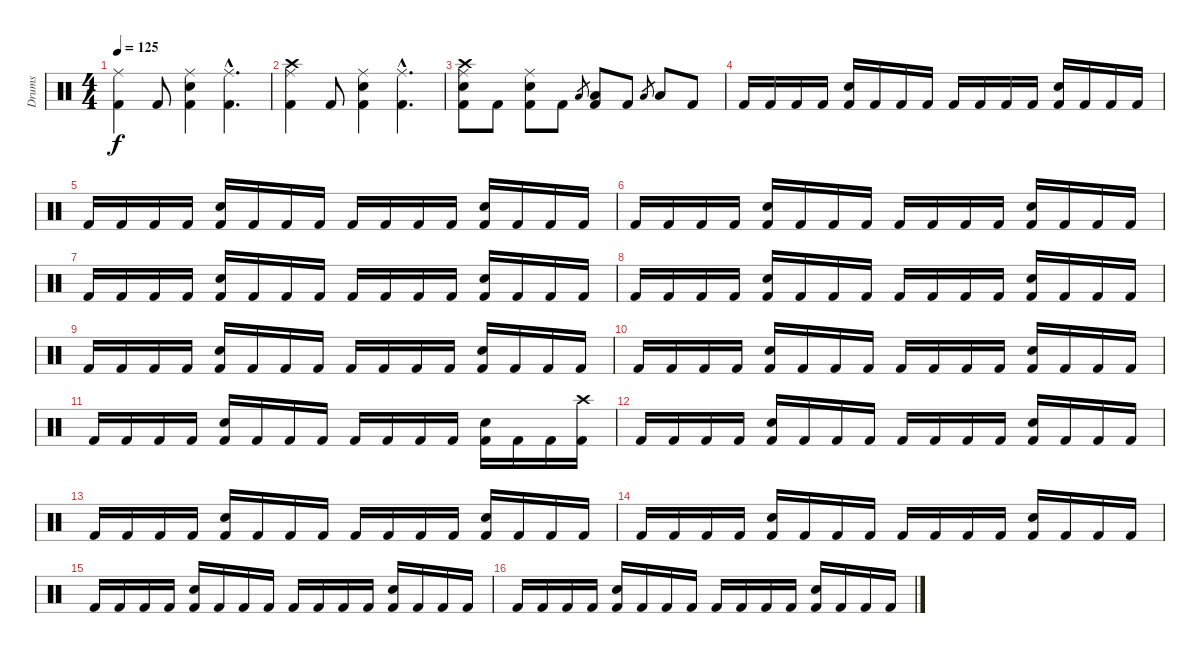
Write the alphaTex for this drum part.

\track ("Drums" "Drums") {instrument percussion}
\staff {score}
\articulation defaults
\ts (4 4)
\tempo 125
\clef neutral
\ks c
("Ride (middle)" "Kick (hit) 2").4{dy f} "Kick (hit) 2".8 ("Ride (middle)" "Electric Snare (hit)" "Kick (hit) 2").4 ("Ride (middle)"{hac} "Kick (hit) 2"{hac}).4{d} |
("Ride (middle)" "Crash high (hit)" "Kick (hit) 2").4 "Kick (hit) 2".8 ("Ride (middle)" "Electric Snare (hit)" "Kick (hit) 2").4 ("Ride (middle)"{hac} "Kick (hit) 2"{hac}).4{d} |
("Crash high (hit)" "Ride (middle)" "Electric Snare (hit)" "Kick (hit) 2").8 "Kick (hit) 2".8 ("Ride (middle)" "Electric Snare (hit)" "Kick (hit) 2").8 "Kick (hit) 2".8 "Low Tom (hit)".8{gr} ("Low Tom (hit)" "Kick (hit) 2").8 "Kick (hit) 2".8 "Low Tom (hit)".8{gr} "Low Tom (hit)".8 "Kick (hit) 2".8 |
"Kick (hit) 2".16 "Kick (hit) 2".16 "Kick (hit) 2".16 "Kick (hit) 2".16 ("Electric Snare (hit)" "Kick (hit) 2").16 "Kick (hit) 2".16 "Kick (hit) 2".16 "Kick (hit) 2".16 "Kick (hit) 2".16 "Kick (hit) 2".16 "Kick (hit) 2".16 "Kick (hit) 2".16 ("Electric Snare (hit)" "Kick (hit) 2").16 "Kick (hit) 2".16 "Kick (hit) 2".16 "Kick (hit) 2".16 |
"Kick (hit) 2".16 "Kick (hit) 2".16 "Kick (hit) 2".16 "Kick (hit) 2".16 ("Electric Snare (hit)" "Kick (hit) 2").16 "Kick (hit) 2".16 "Kick (hit) 2".16 "Kick (hit) 2".16 "Kick (hit) 2".16 "Kick (hit) 2".16 "Kick (hit) 2".16 "Kick (hit) 2".16 ("Electric Snare (hit)" "Kick (hit) 2").16 "Kick (hit) 2".16 "Kick (hit) 2".16 "Kick (hit) 2".16 |
"Kick (hit) 2".16 "Kick (hit) 2".16 "Kick (hit) 2".16 "Kick (hit) 2".16 ("Electric Snare (hit)" "Kick (hit) 2").16 "Kick (hit) 2".16 "Kick (hit) 2".16 "Kick (hit) 2".16 "Kick (hit) 2".16 "Kick (hit) 2".16 "Kick (hit) 2".16 "Kick (hit) 2".16 ("Electric Snare (hit)" "Kick (hit) 2").16 "Kick (hit) 2".16 "Kick (hit) 2".16 "Kick (hit) 2".16 |
"Kick (hit) 2".16 "Kick (hit) 2".16 "Kick (hit) 2".16 "Kick (hit) 2".16 ("Electric Snare (hit)" "Kick (hit) 2").16 "Kick (hit) 2".16 "Kick (hit) 2".16 "Kick (hit) 2".16 "Kick (hit) 2".16 "Kick (hit) 2".16 "Kick (hit) 2".16 "Kick (hit) 2".16 ("Electric Snare (hit)" "Kick (hit) 2").16 "Kick (hit) 2".16 "Kick (hit) 2".16 "Kick (hit) 2".16 |
"Kick (hit) 2".16 "Kick (hit) 2".16 "Kick (hit) 2".16 "Kick (hit) 2".16 ("Electric Snare (hit)" "Kick (hit) 2").16 "Kick (hit) 2".16 "Kick (hit) 2".16 "Kick (hit) 2".16 "Kick (hit) 2".16 "Kick (hit) 2".16 "Kick (hit) 2".16 "Kick (hit) 2".16 ("Electric Snare (hit)" "Kick (hit) 2").16 "Kick (hit) 2".16 "Kick (hit) 2".16 "Kick (hit) 2".16 |
"Kick (hit) 2".16 "Kick (hit) 2".16 "Kick (hit) 2".16 "Kick (hit) 2".16 ("Electric Snare (hit)" "Kick (hit) 2").16 "Kick (hit) 2".16 "Kick (hit) 2".16 "Kick (hit) 2".16 "Kick (hit) 2".16 "Kick (hit) 2".16 "Kick (hit) 2".16 "Kick (hit) 2".16 ("Electric Snare (hit)" "Kick (hit) 2").16 "Kick (hit) 2".16 "Kick (hit) 2".16 "Kick (hit) 2".16 |
"Kick (hit) 2".16 "Kick (hit) 2".16 "Kick (hit) 2".16 "Kick (hit) 2".16 ("Electric Snare (hit)" "Kick (hit) 2").16 "Kick (hit) 2".16 "Kick (hit) 2".16 "Kick (hit) 2".16 "Kick (hit) 2".16 "Kick (hit) 2".16 "Kick (hit) 2".16 "Kick (hit) 2".16 ("Electric Snare (hit)" "Kick (hit) 2").16 "Kick (hit) 2".16 "Kick (hit) 2".16 "Kick (hit) 2".16 |
"Kick (hit) 2".16 "Kick (hit) 2".16 "Kick (hit) 2".16 "Kick (hit) 2".16 ("Electric Snare (hit)" "Kick (hit) 2").16 "Kick (hit) 2".16 "Kick (hit) 2".16 "Kick (hit) 2".16 "Kick (hit) 2".16 "Kick (hit) 2".16 "Kick (hit) 2".16 "Kick (hit) 2".16 ("Electric Snare (hit)" "Kick (hit) 2").16 "Kick (hit) 2".16 "Kick (hit) 2".16 ("Crash high (hit)" "Kick (hit) 2").16 |
"Kick (hit) 2".16 "Kick (hit) 2".16 "Kick (hit) 2".16 "Kick (hit) 2".16 ("Electric Snare (hit)" "Kick (hit) 2").16 "Kick (hit) 2".16 "Kick (hit) 2".16 "Kick (hit) 2".16 "Kick (hit) 2".16 "Kick (hit) 2".16 "Kick (hit) 2".16 "Kick (hit) 2".16 ("Electric Snare (hit)" "Kick (hit) 2").16 "Kick (hit) 2".16 "Kick (hit) 2".16 "Kick (hit) 2".16 |
"Kick (hit) 2".16 "Kick (hit) 2".16 "Kick (hit) 2".16 "Kick (hit) 2".16 ("Electric Snare (hit)" "Kick (hit) 2").16 "Kick (hit) 2".16 "Kick (hit) 2".16 "Kick (hit) 2".16 "Kick (hit) 2".16 "Kick (hit) 2".16 "Kick (hit) 2".16 "Kick (hit) 2".16 ("Electric Snare (hit)" "Kick (hit) 2").16 "Kick (hit) 2".16 "Kick (hit) 2".16 "Kick (hit) 2".16 |
"Kick (hit) 2".16 "Kick (hit) 2".16 "Kick (hit) 2".16 "Kick (hit) 2".16 ("Electric Snare (hit)" "Kick (hit) 2").16 "Kick (hit) 2".16 "Kick (hit) 2".16 "Kick (hit) 2".16 "Kick (hit) 2".16 "Kick (hit) 2".16 "Kick (hit) 2".16 "Kick (hit) 2".16 ("Electric Snare (hit)" "Kick (hit) 2").16 "Kick (hit) 2".16 "Kick (hit) 2".16 "Kick (hit) 2".16 |
"Kick (hit) 2".16 "Kick (hit) 2".16 "Kick (hit) 2".16 "Kick (hit) 2".16 ("Electric Snare (hit)" "Kick (hit) 2").16 "Kick (hit) 2".16 "Kick (hit) 2".16 "Kick (hit) 2".16 "Kick (hit) 2".16 "Kick (hit) 2".16 "Kick (hit) 2".16 "Kick (hit) 2".16 ("Electric Snare (hit)" "Kick (hit) 2").16 "Kick (hit) 2".16 "Kick (hit) 2".16 "Kick (hit) 2".16 |
"Kick (hit) 2".16 "Kick (hit) 2".16 "Kick (hit) 2".16 "Kick (hit) 2".16 ("Electric Snare (hit)" "Kick (hit) 2").16 "Kick (hit) 2".16 "Kick (hit) 2".16 "Kick (hit) 2".16 "Kick (hit) 2".16 "Kick (hit) 2".16 "Kick (hit) 2".16 "Kick (hit) 2".16 ("Electric Snare (hit)" "Kick (hit) 2").16 "Kick (hit) 2".16 "Kick (hit) 2".16 "Kick (hit) 2".16
